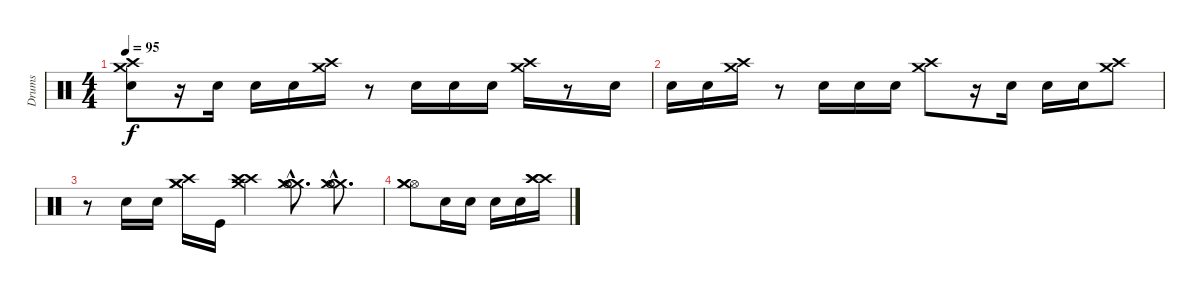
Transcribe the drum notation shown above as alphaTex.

\track ("Drums" "Drums") {instrument percussion}
\staff {score}
\articulation defaults
\ts (4 4)
\tempo 95
\clef neutral
\ks c
("Crash high (hit)" "Snare (hit) 2" "Crash medium (hit)").8{dy f} r.16 "Snare (hit) 2".16 "Snare (hit) 2".16 "Snare (hit) 2".16 ("Crash high (hit)" "Crash medium (hit)").16 r.8 "Snare (hit) 2".16 "Snare (hit) 2".16 "Snare (hit) 2".16 ("Crash high (hit)" "Crash medium (hit)").16 r.8 "Snare (hit) 2".16 |
"Snare (hit) 2".16 "Snare (hit) 2".16 ("Crash high (hit)" "Crash medium (hit)").16 r.8 "Snare (hit) 2".16 "Snare (hit) 2".16 "Snare (hit) 2".16 ("Crash medium (hit)" "Crash high (hit)").8 r.16 "Snare (hit) 2".16 "Snare (hit) 2".16 "Snare (hit) 2".16 ("Crash high (hit)" "Crash medium (hit)").8 |
r.8 "Snare (hit) 2".16 "Snare (hit) 2".16 ("Crash high (hit)" "Crash medium (hit)" "Crash medium (hit)").16 "Kick (hit)".16 ("Crash high (hit)" "Crash high (hit)" "Crash medium (hit)").4 ("Crash medium (hit)"{hac} "Hi-Hat (open)"{hac} "Crash medium (hit)"{hac} "Hi-Hat (open)"{hac}).8{d} ("Crash medium (hit)"{hac} "Hi-Hat (open)"{hac} "Crash medium (hit)"{hac} "Hi-Hat (open)"{hac}).8{d} |
("Hi-Hat (open)" "Crash medium (hit)" "Crash medium (hit)").8 "Snare (hit) 2".16 "Snare (hit) 2".16 "Snare (hit) 2".16 "Snare (hit) 2".16 ("Crash high (hit)" "Crash high (hit)" "Crash high (hit)").16
